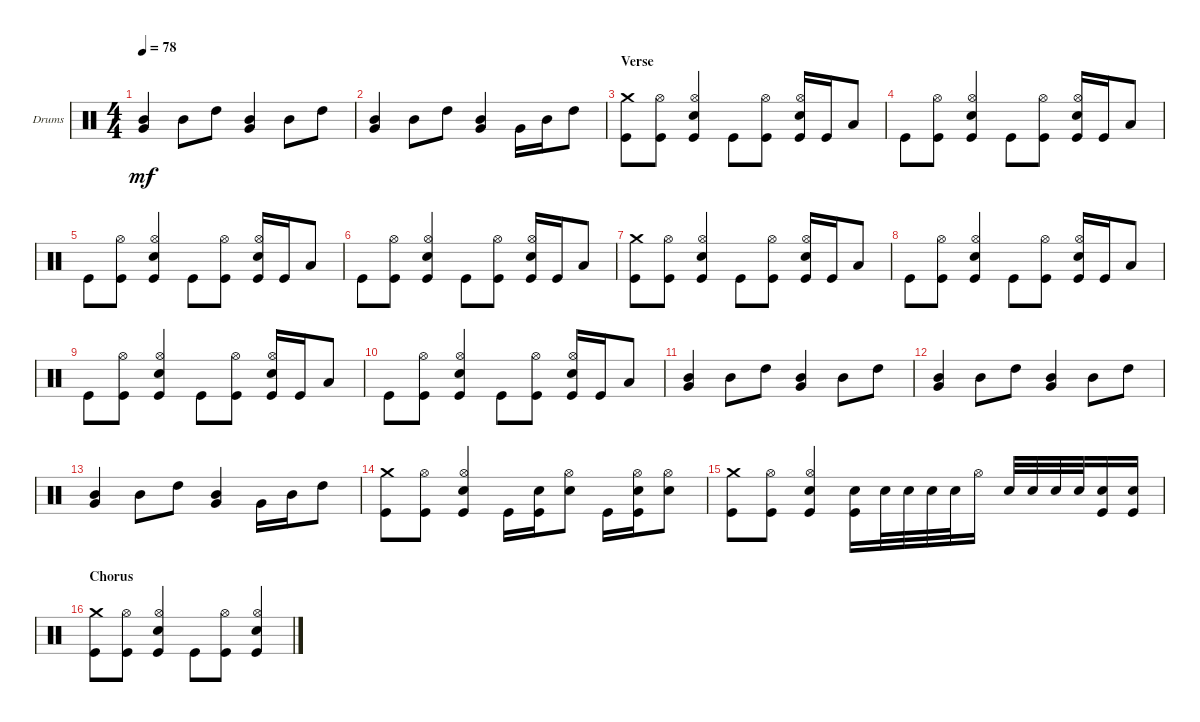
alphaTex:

\defaultSystemsLayout 4
\bracketExtendMode groupsimilarinstruments
\firstSystemTrackNameOrientation horizontal
\otherSystemsTrackNameOrientation horizontal
\track ("Drumkit" "Drums") {instrument percussion}
\staff {score}
\articulation defaults
\ts (4 4)
\tempo 78
\clef neutral
\ks c
("Mid Tom (hit)" "Very Low Tom (hit)").4{dy mf} "Mid Tom (hit)".8 "High Tom (hit)".8 ("Mid Tom (hit)" "Very Low Tom (hit)").4 "Mid Tom (hit)".8 "High Tom (hit)".8 |
("Mid Tom (hit)" "Very Low Tom (hit)").4 "Mid Tom (hit)".8 "High Tom (hit)".8 ("Mid Tom (hit)" "Very Low Tom (hit)").4 "Very Low Tom (hit)".16 "Mid Tom (hit)".16 "High Tom (hit)".8 |
\section ("" "Verse")
("Crash medium (hit)" "Kick (hit)").8 ("Kick (hit)" "Hi-Hat (open)").8 ("Hi-Hat (open)" "Kick (hit)" "Snare (hit) 2").4 "Kick (hit)".8 ("Hi-Hat (open)" "Kick (hit)").8 ("Kick (hit)" "Hi-Hat (open)" "Snare (hit) 2").16 "Kick (hit)".16 "Low Tom (hit)".8 |
"Kick (hit)".8 ("Kick (hit)" "Hi-Hat (open)").8 ("Hi-Hat (open)" "Kick (hit)" "Snare (hit) 2").4 "Kick (hit)".8 ("Hi-Hat (open)" "Kick (hit)").8 ("Kick (hit)" "Hi-Hat (open)" "Snare (hit) 2").16 "Kick (hit)".16 "Low Tom (hit)".8 |
"Kick (hit)".8 ("Kick (hit)" "Hi-Hat (open)").8 ("Hi-Hat (open)" "Kick (hit)" "Snare (hit) 2").4 "Kick (hit)".8 ("Hi-Hat (open)" "Kick (hit)").8 ("Kick (hit)" "Hi-Hat (open)" "Snare (hit) 2").16 "Kick (hit)".16 "Low Tom (hit)".8 |
"Kick (hit)".8 ("Kick (hit)" "Hi-Hat (open)").8 ("Hi-Hat (open)" "Kick (hit)" "Snare (hit) 2").4 "Kick (hit)".8 ("Hi-Hat (open)" "Kick (hit)").8 ("Kick (hit)" "Hi-Hat (open)" "Snare (hit) 2").16 "Kick (hit)".16 "Low Tom (hit)".8 |
("Crash medium (hit)" "Kick (hit)").8 ("Kick (hit)" "Hi-Hat (open)").8 ("Hi-Hat (open)" "Kick (hit)" "Snare (hit) 2").4 "Kick (hit)".8 ("Hi-Hat (open)" "Kick (hit)").8 ("Kick (hit)" "Hi-Hat (open)" "Snare (hit) 2").16 "Kick (hit)".16 "Low Tom (hit)".8 |
"Kick (hit)".8 ("Kick (hit)" "Hi-Hat (open)").8 ("Hi-Hat (open)" "Kick (hit)" "Snare (hit) 2").4 "Kick (hit)".8 ("Hi-Hat (open)" "Kick (hit)").8 ("Kick (hit)" "Hi-Hat (open)" "Snare (hit) 2").16 "Kick (hit)".16 "Low Tom (hit)".8 |
"Kick (hit)".8 ("Kick (hit)" "Hi-Hat (open)").8 ("Hi-Hat (open)" "Kick (hit)" "Snare (hit) 2").4 "Kick (hit)".8 ("Hi-Hat (open)" "Kick (hit)").8 ("Kick (hit)" "Hi-Hat (open)" "Snare (hit) 2").16 "Kick (hit)".16 "Low Tom (hit)".8 |
"Kick (hit)".8 ("Kick (hit)" "Hi-Hat (open)").8 ("Hi-Hat (open)" "Kick (hit)" "Snare (hit) 2").4 "Kick (hit)".8 ("Hi-Hat (open)" "Kick (hit)").8 ("Kick (hit)" "Hi-Hat (open)" "Snare (hit) 2").16 "Kick (hit)".16 "Low Tom (hit)".8 |
("Mid Tom (hit)" "Very Low Tom (hit)").4 "Mid Tom (hit)".8 "High Tom (hit)".8 ("Mid Tom (hit)" "Very Low Tom (hit)").4 "Mid Tom (hit)".8 "High Tom (hit)".8 |
("Mid Tom (hit)" "Very Low Tom (hit)").4 "Mid Tom (hit)".8 "High Tom (hit)".8 ("Mid Tom (hit)" "Very Low Tom (hit)").4 "Mid Tom (hit)".8 "High Tom (hit)".8 |
("Mid Tom (hit)" "Very Low Tom (hit)").4 "Mid Tom (hit)".8 "High Tom (hit)".8 ("Mid Tom (hit)" "Very Low Tom (hit)").4 "Very Low Tom (hit)".16 "Mid Tom (hit)".16 "High Tom (hit)".8 |
("Crash medium (hit)" "Kick (hit)").8 ("Kick (hit)" "Hi-Hat (open)").8 ("Hi-Hat (open)" "Kick (hit)" "Snare (hit) 2").4 "Kick (hit)".16 ("Kick (hit)" "Snare (hit) 2").16 ("Hi-Hat (open)" "Snare (hit) 2").8 "Kick (hit)".16 ("Kick (hit)" "Hi-Hat (open)" "Snare (hit) 2").16 ("Hi-Hat (open)" "Snare (hit) 2").8 |
("Crash medium (hit)" "Kick (hit)").8 ("Kick (hit)" "Hi-Hat (open)").8 ("Hi-Hat (open)" "Kick (hit)" "Snare (hit) 2").4 ("Snare (hit) 2" "Kick (hit)").16 "Snare (hit) 2".32 "Snare (hit) 2".32 "Snare (hit) 2".32 "Snare (hit) 2".32 "Hi-Hat (open)".16 "Snare (hit) 2".32 "Snare (hit) 2".32 "Snare (hit) 2".32 "Snare (hit) 2".32 ("Snare (hit) 2" "Kick (hit)").16 ("Kick (hit)" "Snare (hit) 2").16 |
\section ("" "Chorus")
("Crash medium (hit)" "Kick (hit)").8 ("Kick (hit)" "Hi-Hat (open)").8 ("Hi-Hat (open)" "Kick (hit)" "Snare (hit) 2").4 "Kick (hit)".8 ("Kick (hit)" "Hi-Hat (open)").8 ("Hi-Hat (open)" "Kick (hit)" "Snare (hit) 2").4
